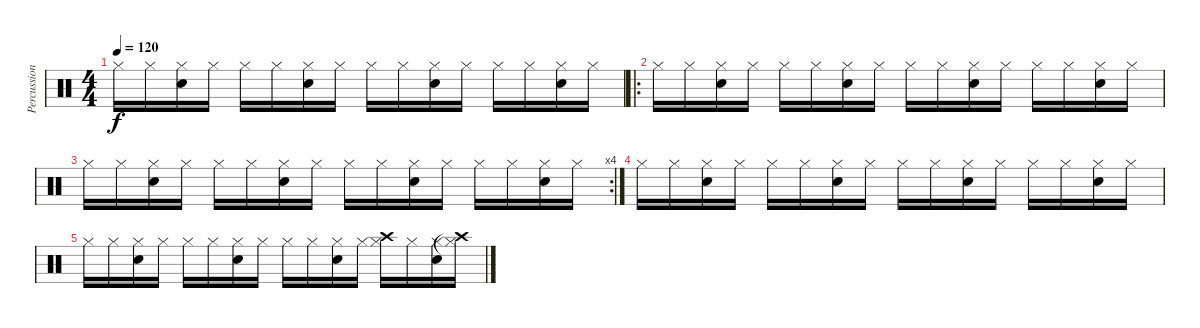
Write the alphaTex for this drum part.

\track ("Percussions" "Percussion") {instrument percussion}
\staff {score}
\articulation defaults
\ts (4 4)
\tempo 120
\clef neutral
\ks c "Hi-Hat (closed)".16{dy f} "Hi-Hat (closed)".16
("Hi-Hat (closed)" "Snare (hit) 2").16 "Hi-Hat (closed)".16 "Hi-Hat (closed)".16 "Hi-Hat (closed)".16 ("Hi-Hat (closed)" "Snare (hit) 2").16 "Hi-Hat (closed)".16 "Hi-Hat (closed)".16 "Hi-Hat (closed)".16 ("Hi-Hat (closed)" "Snare (hit) 2").16 "Hi-Hat (closed)".16 "Hi-Hat (closed)".16 "Hi-Hat (closed)".16 ("Hi-Hat (closed)" "Snare (hit) 2").16 "Hi-Hat (closed)".16 |
\ro "Hi-Hat (closed)".16 "Hi-Hat (closed)".16
("Hi-Hat (closed)" "Snare (hit) 2").16 "Hi-Hat (closed)".16 "Hi-Hat (closed)".16 "Hi-Hat (closed)".16 ("Hi-Hat (closed)" "Snare (hit) 2").16 "Hi-Hat (closed)".16 "Hi-Hat (closed)".16 "Hi-Hat (closed)".16 ("Hi-Hat (closed)" "Snare (hit) 2").16 "Hi-Hat (closed)".16 "Hi-Hat (closed)".16 "Hi-Hat (closed)".16 ("Hi-Hat (closed)" "Snare (hit) 2").16 "Hi-Hat (closed)".16 |
\rc 4 "Hi-Hat (closed)".16 "Hi-Hat (closed)".16
("Hi-Hat (closed)" "Snare (hit) 2").16 "Hi-Hat (closed)".16 "Hi-Hat (closed)".16 "Hi-Hat (closed)".16 ("Hi-Hat (closed)" "Snare (hit) 2").16 "Hi-Hat (closed)".16 "Hi-Hat (closed)".16 "Hi-Hat (closed)".16 ("Hi-Hat (closed)" "Snare (hit) 2").16 "Hi-Hat (closed)".16 "Hi-Hat (closed)".16 "Hi-Hat (closed)".16 ("Hi-Hat (closed)" "Snare (hit) 2").16 "Hi-Hat (closed)".16 |
"Hi-Hat (closed)".16 "Hi-Hat (closed)".16 ("Hi-Hat (closed)" "Snare (hit) 2").16 "Hi-Hat (closed)".16 "Hi-Hat (closed)".16 "Hi-Hat (closed)".16 ("Hi-Hat (closed)" "Snare (hit) 2").16 "Hi-Hat (closed)".16 "Hi-Hat (closed)".16 "Hi-Hat (closed)".16 ("Hi-Hat (closed)" "Snare (hit) 2").16 "Hi-Hat (closed)".16 "Hi-Hat (closed)".16 "Hi-Hat (closed)".16 ("Hi-Hat (closed)" "Snare (hit) 2").16 "Hi-Hat (closed)".16 |
"Hi-Hat (closed)".16 "Hi-Hat (closed)".16 ("Hi-Hat (closed)" "Snare (hit) 2").16 "Hi-Hat (closed)".16 "Hi-Hat (closed)".16 "Hi-Hat (closed)".16 ("Hi-Hat (closed)" "Snare (hit) 2").16 "Hi-Hat (closed)".16 "Hi-Hat (closed)".16 "Hi-Hat (closed)".16 ("Hi-Hat (closed)" "Snare (hit) 2").16 "Hi-Hat (closed)".16 ("Hi-Hat (closed)" "Crash high (hit)").16 "Hi-Hat (closed)".16 ("Hi-Hat (closed)" "Snare (hit) 2").16 ("Hi-Hat (closed)" "Crash high (hit)"{t}).16
